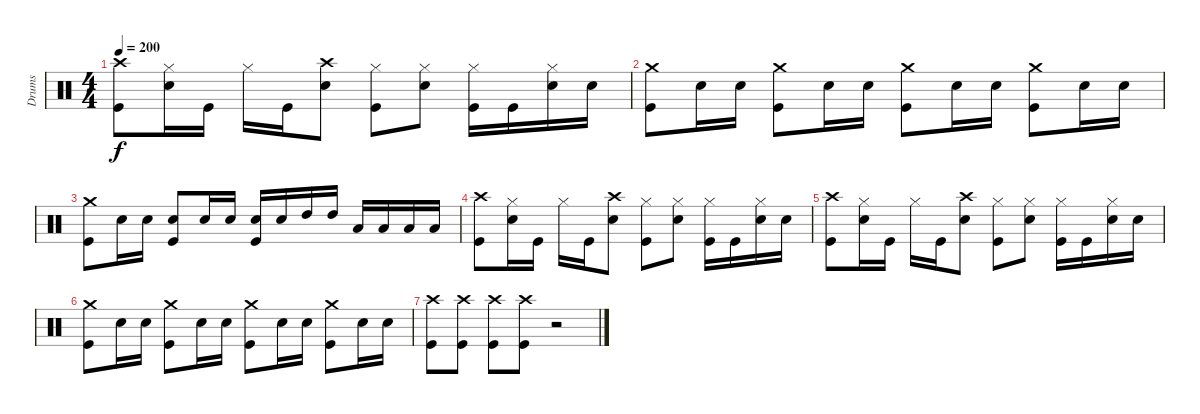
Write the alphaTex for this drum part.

\track ("Drums" "Drums") {instrument percussion}
\staff {score}
\articulation defaults
\ts (4 4)
\tempo 200
\clef neutral
\ks c
("Crash high (hit)" "Kick (hit)").8{dy f} ("Hi-Hat (closed)" "Snare (hit) 2").16 "Kick (hit)".16 "Hi-Hat (closed)".16 "Kick (hit)".16 ("Crash high (hit)" "Snare (hit) 2").8 ("Hi-Hat (closed)" "Kick (hit)").8 ("Hi-Hat (closed)" "Snare (hit) 2").8 ("Hi-Hat (closed)" "Kick (hit)").16 "Kick (hit)".16 ("Hi-Hat (closed)" "Snare (hit) 2").16 "Snare (hit) 2".16 |
("Crash medium (hit)" "Kick (hit)").8 "Snare (hit) 2".16 "Snare (hit) 2".16 ("Crash medium (hit)" "Kick (hit)").8 "Snare (hit) 2".16 "Snare (hit) 2".16 ("Crash medium (hit)" "Kick (hit)").8 "Snare (hit) 2".16 "Snare (hit) 2".16 ("Crash medium (hit)" "Kick (hit)").8 "Snare (hit) 2".16 "Snare (hit) 2".16 |
("Crash medium (hit)" "Kick (hit)").8 "Snare (hit) 2".16 "Snare (hit) 2".16 ("Snare (hit) 2" "Kick (hit)").8 "Snare (hit) 2".16 "Snare (hit) 2".16 ("Snare (hit) 2" "Kick (hit)").16 "Snare (hit) 2".16 "High Tom (hit)".16 "High Tom (hit)".16 "Low Tom (hit)".16 "Low Tom (hit)".16 "Low Floor Tom (hit)".16 "Low Floor Tom (hit)".16 |
("Crash high (hit)" "Kick (hit)").8 ("Hi-Hat (closed)" "Snare (hit) 2").16 "Kick (hit)".16 "Hi-Hat (closed)".16 "Kick (hit)".16 ("Crash high (hit)" "Snare (hit) 2").8 ("Hi-Hat (closed)" "Kick (hit)").8 ("Hi-Hat (closed)" "Snare (hit) 2").8 ("Hi-Hat (closed)" "Kick (hit)").16 "Kick (hit)".16 ("Hi-Hat (closed)" "Snare (hit) 2").16 "Snare (hit) 2".16 |
("Crash high (hit)" "Kick (hit)").8 ("Hi-Hat (closed)" "Snare (hit) 2").16 "Kick (hit)".16 "Hi-Hat (closed)".16 "Kick (hit)".16 ("Crash high (hit)" "Snare (hit) 2").8 ("Hi-Hat (closed)" "Kick (hit)").8 ("Hi-Hat (closed)" "Snare (hit) 2").8 ("Hi-Hat (closed)" "Kick (hit)").16 "Kick (hit)".16 ("Hi-Hat (closed)" "Snare (hit) 2").16 "Snare (hit) 2".16 |
("Crash medium (hit)" "Kick (hit)").8 "Snare (hit) 2".16 "Snare (hit) 2".16 ("Crash medium (hit)" "Kick (hit)").8 "Snare (hit) 2".16 "Snare (hit) 2".16 ("Crash medium (hit)" "Kick (hit)").8 "Snare (hit) 2".16 "Snare (hit) 2".16 ("Crash medium (hit)" "Kick (hit)").8 "Snare (hit) 2".16 "Snare (hit) 2".16 |
("Crash high (hit)" "Kick (hit)").8 ("Crash high (hit)" "Kick (hit)").8 ("Crash high (hit)" "Kick (hit)").8 ("Crash high (hit)" "Kick (hit)").8 r.2{volume 3}
